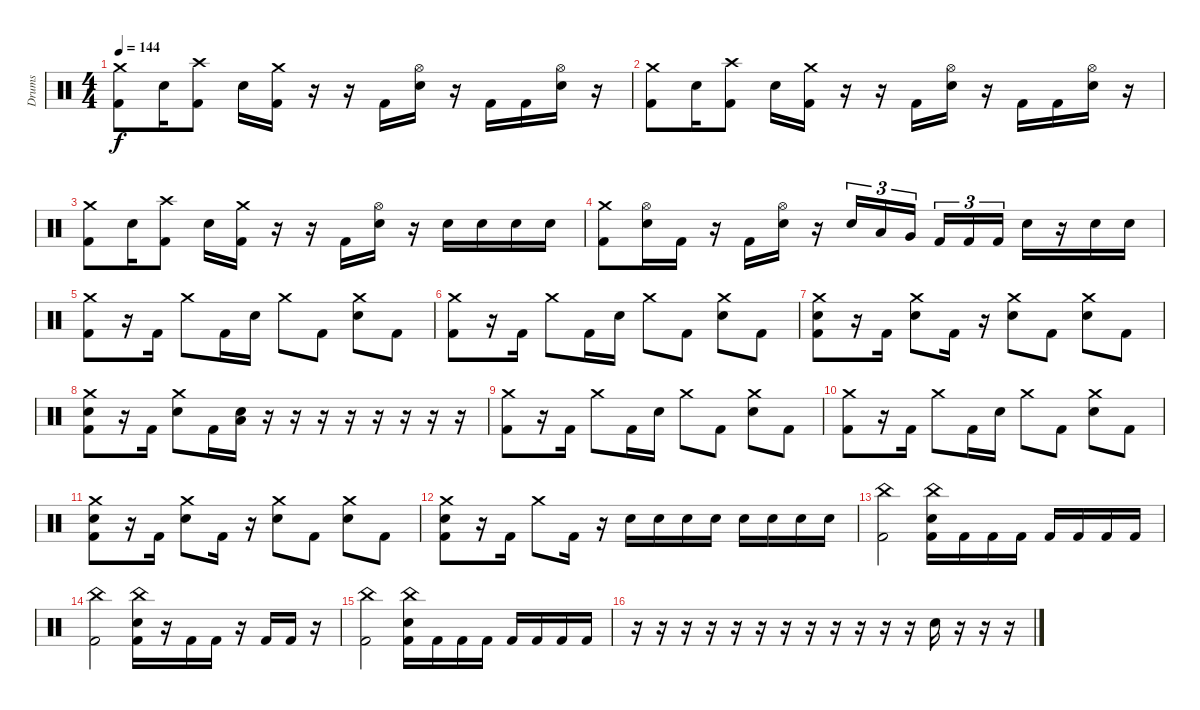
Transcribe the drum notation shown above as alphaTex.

\track ("Drums" "Drums") {instrument percussion}
\staff {score}
\articulation defaults
\ts (4 4)
\tempo 144
\clef neutral
\ks c
("Crash medium (hit)" "Kick (hit) 2").8{dy f} "Electric Snare (hit)".16 ("Crash high (hit)" "Kick (hit) 2").8 "Electric Snare (hit)".16 ("Crash medium (hit)" "Kick (hit) 2").16 r.16 r.16 "Kick (hit) 2".16 ("Hi-Hat (open)" "Electric Snare (hit)").16 r.16 "Kick (hit) 2".16 "Kick (hit) 2".16 ("Hi-Hat (open)" "Electric Snare (hit)").16 r.16 |
("Crash medium (hit)" "Kick (hit) 2").8 "Electric Snare (hit)".16 ("Crash high (hit)" "Kick (hit) 2").8 "Electric Snare (hit)".16 ("Crash medium (hit)" "Kick (hit) 2").16 r.16 r.16 "Kick (hit) 2".16 ("Hi-Hat (open)" "Electric Snare (hit)").16 r.16 "Kick (hit) 2".16 "Kick (hit) 2".16 ("Hi-Hat (open)" "Electric Snare (hit)").16 r.16 |
("Crash medium (hit)" "Kick (hit) 2").8 "Electric Snare (hit)".16 ("Crash high (hit)" "Kick (hit) 2").8 "Electric Snare (hit)".16 ("Crash medium (hit)" "Kick (hit) 2").16 r.16 r.16 "Kick (hit) 2".16 ("Hi-Hat (open)" "Electric Snare (hit)").16 r.16 "Electric Snare (hit)".16 "Electric Snare (hit)".16 "Electric Snare (hit)".16 "Electric Snare (hit)".16 |
("Crash medium (hit)" "Kick (hit) 2").8 ("Hi-Hat (open)" "Electric Snare (hit)").16 "Kick (hit) 2".16 r.16 "Kick (hit) 2".16 ("Hi-Hat (open)" "Electric Snare (hit)").16 r.16 "Electric Snare (hit)".16{tu (3 2)} "Low Tom (hit)".16{tu (3 2)} "Very Low Tom (hit)".16{tu (3 2)} "Kick (hit) 2".16{tu (3 2)} "Kick (hit) 2".16{tu (3 2)} "Kick (hit) 2".16{tu (3 2)} "Electric Snare (hit)".16 r.16 "Electric Snare (hit)".16 "Electric Snare (hit)".16 |
("Crash medium (hit)" "Kick (hit) 2").8 r.16 "Kick (hit) 2".16 "Crash medium (hit)".8 "Kick (hit) 2".16 "Electric Snare (hit)".16 "Crash medium (hit)".8 "Kick (hit) 2".8 ("Crash medium (hit)" "Electric Snare (hit)").8 "Kick (hit) 2".8 |
("Crash medium (hit)" "Kick (hit) 2").8 r.16 "Kick (hit) 2".16 "Crash medium (hit)".8 "Kick (hit) 2".16 "Electric Snare (hit)".16 "Crash medium (hit)".8 "Kick (hit) 2".8 ("Crash medium (hit)" "Electric Snare (hit)").8 "Kick (hit) 2".8 |
("Crash medium (hit)" "Electric Snare (hit)" "Kick (hit) 2").8 r.16 "Kick (hit) 2".16 ("Crash medium (hit)" "Electric Snare (hit)").8 "Kick (hit) 2".16 r.16 ("Crash medium (hit)" "Electric Snare (hit)").8 "Kick (hit) 2".8 ("Crash medium (hit)" "Electric Snare (hit)").8 "Kick (hit) 2".8 |
("Crash medium (hit)" "Electric Snare (hit)" "Kick (hit) 2").8 r.16 "Kick (hit) 2".16 ("Crash medium (hit)" "Electric Snare (hit)").8 "Kick (hit) 2".16 ("Low Floor Tom (hit)" "Electric Snare (hit)").16 r.16 r.16 r.16 r.16 r.16 r.16 r.16 r.16 |
("Crash medium (hit)" "Kick (hit) 2").8 r.16 "Kick (hit) 2".16 "Crash medium (hit)".8 "Kick (hit) 2".16 "Electric Snare (hit)".16 "Crash medium (hit)".8 "Kick (hit) 2".8 ("Crash medium (hit)" "Electric Snare (hit)").8 "Kick (hit) 2".8 |
("Crash medium (hit)" "Kick (hit) 2").8 r.16 "Kick (hit) 2".16 "Crash medium (hit)".8 "Kick (hit) 2".16 "Electric Snare (hit)".16 "Crash medium (hit)".8 "Kick (hit) 2".8 ("Crash medium (hit)" "Electric Snare (hit)").8 "Kick (hit) 2".8 |
("Crash medium (hit)" "Electric Snare (hit)" "Kick (hit) 2").8 r.16 "Kick (hit) 2".16 ("Crash medium (hit)" "Electric Snare (hit)").8 "Kick (hit) 2".16 r.16 ("Crash medium (hit)" "Electric Snare (hit)").8 "Kick (hit) 2".8 ("Crash medium (hit)" "Electric Snare (hit)").8 "Kick (hit) 2".8 |
("Crash medium (hit)" "Electric Snare (hit)" "Kick (hit) 2").8 r.16 "Kick (hit) 2".16 "Crash medium (hit)".8 "Kick (hit) 2".16 r.16 "Electric Snare (hit)".16 "Electric Snare (hit)".16 "Electric Snare (hit)".16 "Electric Snare (hit)".16 "Electric Snare (hit)".16 "Electric Snare (hit)".16 "Electric Snare (hit)".16 "Electric Snare (hit)".16 |
("China (hit)" "Kick (hit) 2").2 ("China (hit)" "Electric Snare (hit)" "Kick (hit) 2").16 "Kick (hit) 2".16 "Kick (hit) 2".16 "Kick (hit) 2".16 "Kick (hit) 2".16 "Kick (hit) 2".16 "Kick (hit) 2".16 "Kick (hit) 2".16 |
("China (hit)" "Kick (hit) 2").2 ("China (hit)" "Electric Snare (hit)" "Kick (hit) 2").16 r.16 "Kick (hit) 2".16 "Kick (hit) 2".16 r.16 "Kick (hit) 2".16 "Kick (hit) 2".16 r.16 |
("China (hit)" "Kick (hit) 2").2 ("China (hit)" "Electric Snare (hit)" "Kick (hit) 2").16 "Kick (hit) 2".16 "Kick (hit) 2".16 "Kick (hit) 2".16 "Kick (hit) 2".16 "Kick (hit) 2".16 "Kick (hit) 2".16 "Kick (hit) 2".16 |
r.16 r.16 r.16 r.16 r.16 r.16 r.16 r.16 r.16 r.16 r.16 r.16 "Electric Snare (hit)".16 r.16 r.16 r.16
